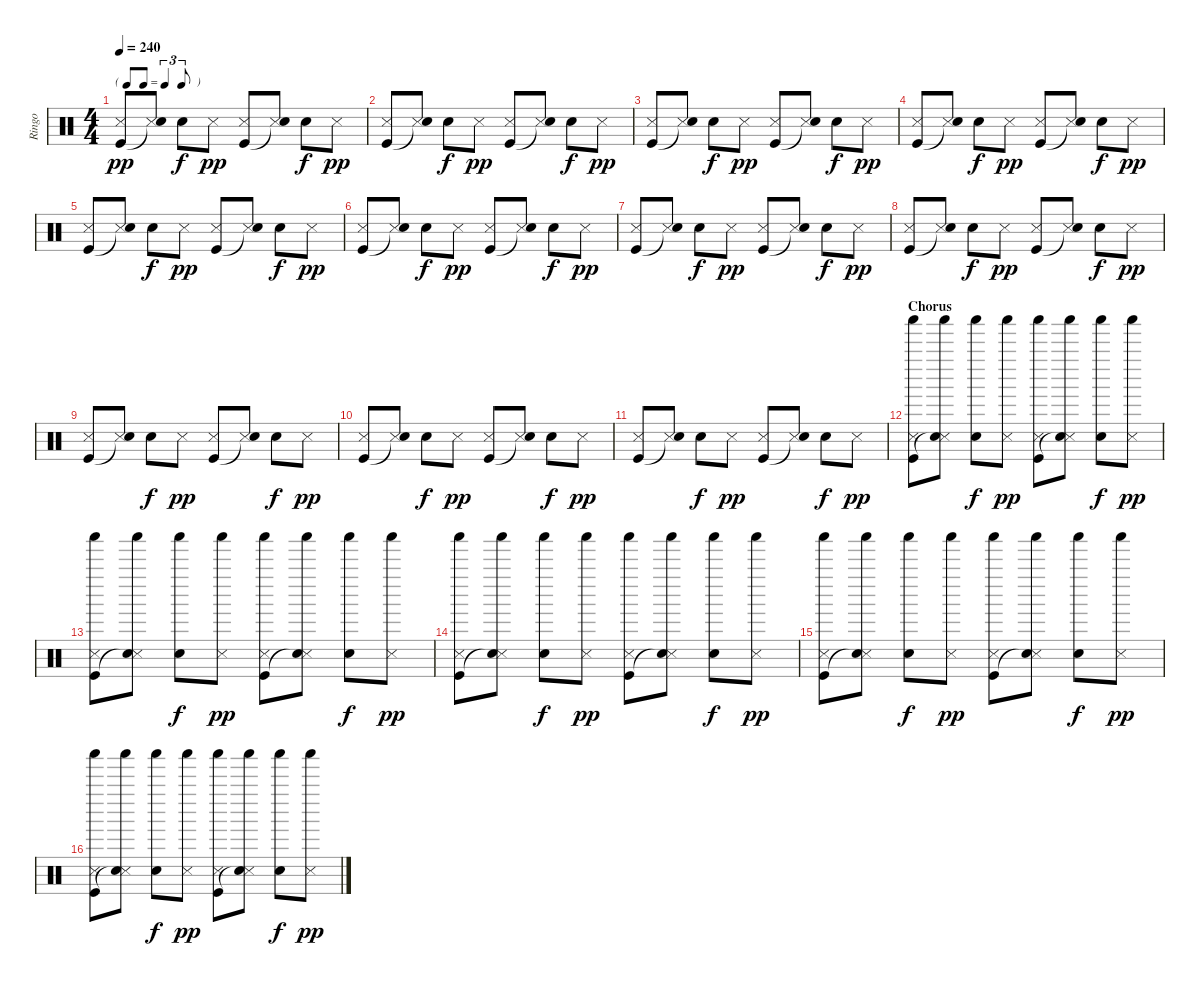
\track ("Ringo" "Ringo") {instrument percussion}
\staff {score}
\articulation defaults
\ts (4 4)
\tf triplet8th
\tempo 240
\clef neutral
\ks c
("Snare (side stick) 3" "Kick (hit)").8{dy pp} ("Snare (side stick) 3" "Snare (hit)"{t}).8 "Snare (hit) 2".8{dy f} "Snare (side stick) 3".8{dy pp} ("Snare (side stick) 3" "Kick (hit)").8 ("Snare (side stick) 3" "Snare (hit)"{t}).8 "Snare (hit) 2".8{dy f} "Snare (side stick) 3".8{dy pp} |
("Snare (side stick) 3" "Kick (hit)").8 ("Snare (side stick) 3" "Snare (hit)"{t}).8 "Snare (hit) 2".8{dy f} "Snare (side stick) 3".8{dy pp} ("Snare (side stick) 3" "Kick (hit)").8 ("Snare (side stick) 3" "Snare (hit)"{t}).8 "Snare (hit) 2".8{dy f} "Snare (side stick) 3".8{dy pp} |
("Snare (side stick) 3" "Kick (hit)").8 ("Snare (side stick) 3" "Snare (hit)"{t}).8 "Snare (hit) 2".8{dy f} "Snare (side stick) 3".8{dy pp} ("Snare (side stick) 3" "Kick (hit)").8 ("Snare (side stick) 3" "Snare (hit)"{t}).8 "Snare (hit) 2".8{dy f} "Snare (side stick) 3".8{dy pp} |
("Snare (side stick) 3" "Kick (hit)").8 ("Snare (side stick) 3" "Snare (hit)"{t}).8 "Snare (hit) 2".8{dy f} "Snare (side stick) 3".8{dy pp} ("Snare (side stick) 3" "Kick (hit)").8 ("Snare (side stick) 3" "Snare (hit)"{t}).8 "Snare (hit) 2".8{dy f} "Snare (side stick) 3".8{dy pp} |
("Snare (side stick) 3" "Kick (hit)").8 ("Snare (side stick) 3" "Snare (hit)"{t}).8 "Snare (hit) 2".8{dy f} "Snare (side stick) 3".8{dy pp} ("Snare (side stick) 3" "Kick (hit)").8 ("Snare (side stick) 3" "Snare (hit)"{t}).8 "Snare (hit) 2".8{dy f} "Snare (side stick) 3".8{dy pp} |
("Snare (side stick) 3" "Kick (hit)").8 ("Snare (side stick) 3" "Snare (hit)"{t}).8 "Snare (hit) 2".8{dy f} "Snare (side stick) 3".8{dy pp} ("Snare (side stick) 3" "Kick (hit)").8 ("Snare (side stick) 3" "Snare (hit)"{t}).8 "Snare (hit) 2".8{dy f} "Snare (side stick) 3".8{dy pp} |
("Snare (side stick) 3" "Kick (hit)").8 ("Snare (side stick) 3" "Snare (hit)"{t}).8 "Snare (hit) 2".8{dy f} "Snare (side stick) 3".8{dy pp} ("Snare (side stick) 3" "Kick (hit)").8 ("Snare (side stick) 3" "Snare (hit)"{t}).8 "Snare (hit) 2".8{dy f} "Snare (side stick) 3".8{dy pp} |
("Snare (side stick) 3" "Kick (hit)").8 ("Snare (side stick) 3" "Snare (hit)"{t}).8 "Snare (hit) 2".8{dy f} "Snare (side stick) 3".8{dy pp} ("Snare (side stick) 3" "Kick (hit)").8 ("Snare (side stick) 3" "Snare (hit)"{t}).8 "Snare (hit) 2".8{dy f} "Snare (side stick) 3".8{dy pp} |
("Snare (side stick) 3" "Kick (hit)").8 ("Snare (side stick) 3" "Snare (hit)"{t}).8 "Snare (hit) 2".8{dy f} "Snare (side stick) 3".8{dy pp} ("Snare (side stick) 3" "Kick (hit)").8 ("Snare (side stick) 3" "Snare (hit)"{t}).8 "Snare (hit) 2".8{dy f} "Snare (side stick) 3".8{dy pp} |
("Snare (side stick) 3" "Kick (hit)").8 ("Snare (side stick) 3" "Snare (hit)"{t}).8 "Snare (hit) 2".8{dy f} "Snare (side stick) 3".8{dy pp} ("Snare (side stick) 3" "Kick (hit)").8 ("Snare (side stick) 3" "Snare (hit)"{t}).8 "Snare (hit) 2".8{dy f} "Snare (side stick) 3".8{dy pp} |
("Snare (side stick) 3" "Kick (hit)").8 ("Snare (side stick) 3" "Snare (hit)"{t}).8 "Snare (hit) 2".8{dy f} "Snare (side stick) 3".8{dy pp} ("Snare (side stick) 3" "Kick (hit)").8 ("Snare (side stick) 3" "Snare (hit)"{t}).8 "Snare (hit) 2".8{dy f} "Snare (side stick) 3".8{dy pp} |
\section ("" "Chorus ")
("Shaker (hit)" "Snare (side stick) 3" "Kick (hit)").8 ("Shaker (hit)" "Snare (side stick) 3" "Snare (hit)"{t}).8 ("Shaker (hit)" "Snare (hit) 2").8{dy f} ("Shaker (hit)" "Snare (side stick) 3").8{dy pp} ("Shaker (hit)" "Snare (side stick) 3" "Kick (hit)").8 ("Shaker (hit)" "Snare (side stick) 3" "Snare (hit)"{t}).8 ("Shaker (hit)" "Snare (hit) 2").8{dy f} ("Shaker (hit)" "Snare (side stick) 3").8{dy pp} |
("Shaker (hit)" "Snare (side stick) 3" "Kick (hit)").8 ("Shaker (hit)" "Snare (side stick) 3" "Snare (hit)"{t}).8 ("Shaker (hit)" "Snare (hit) 2").8{dy f} ("Shaker (hit)" "Snare (side stick) 3").8{dy pp} ("Shaker (hit)" "Snare (side stick) 3" "Kick (hit)").8 ("Shaker (hit)" "Snare (side stick) 3" "Snare (hit)"{t}).8 ("Shaker (hit)" "Snare (hit) 2").8{dy f} ("Shaker (hit)" "Snare (side stick) 3").8{dy pp} |
("Shaker (hit)" "Snare (side stick) 3" "Kick (hit)").8 ("Shaker (hit)" "Snare (side stick) 3" "Snare (hit)"{t}).8 ("Shaker (hit)" "Snare (hit) 2").8{dy f} ("Shaker (hit)" "Snare (side stick) 3").8{dy pp} ("Shaker (hit)" "Snare (side stick) 3" "Kick (hit)").8 ("Shaker (hit)" "Snare (side stick) 3" "Snare (hit)"{t}).8 ("Shaker (hit)" "Snare (hit) 2").8{dy f} ("Shaker (hit)" "Snare (side stick) 3").8{dy pp} |
("Shaker (hit)" "Snare (side stick) 3" "Kick (hit)").8 ("Shaker (hit)" "Snare (side stick) 3" "Snare (hit)"{t}).8 ("Shaker (hit)" "Snare (hit) 2").8{dy f} ("Shaker (hit)" "Snare (side stick) 3").8{dy pp} ("Shaker (hit)" "Snare (side stick) 3" "Kick (hit)").8 ("Shaker (hit)" "Snare (side stick) 3" "Snare (hit)"{t}).8 ("Shaker (hit)" "Snare (hit) 2").8{dy f} ("Shaker (hit)" "Snare (side stick) 3").8{dy pp} |
("Shaker (hit)" "Snare (side stick) 3" "Kick (hit)").8 ("Shaker (hit)" "Snare (side stick) 3" "Snare (hit)"{t}).8 ("Shaker (hit)" "Snare (hit) 2").8{dy f} ("Shaker (hit)" "Snare (side stick) 3").8{dy pp} ("Shaker (hit)" "Snare (side stick) 3" "Kick (hit)").8 ("Shaker (hit)" "Snare (side stick) 3" "Snare (hit)"{t}).8 ("Shaker (hit)" "Snare (hit) 2").8{dy f} ("Shaker (hit)" "Snare (side stick) 3").8{dy pp}
